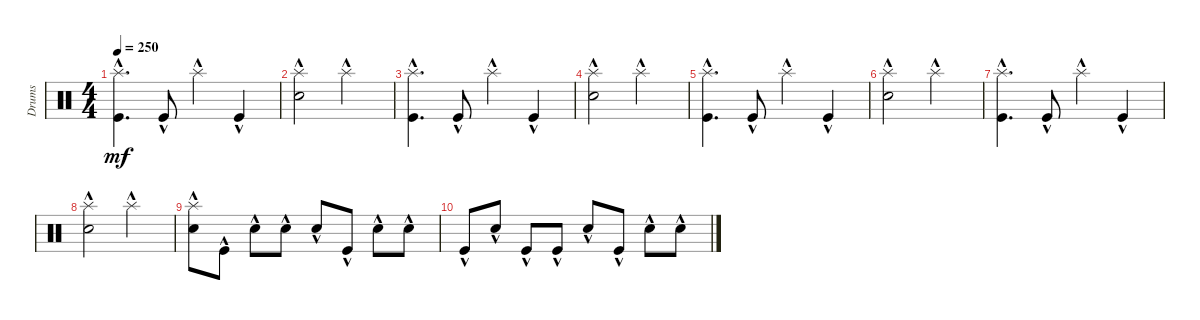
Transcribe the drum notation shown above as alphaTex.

\track ("Drums" "Drums") {instrument percussion}
\staff {score}
\articulation defaults
\ts (4 4)
\tempo 250
\clef neutral
\ks c
("Kick (hit)"{hac} "Splash (hit)"{hac}).4{d dy mf} "Kick (hit)"{hac}.8 "Splash (hit)"{hac}.4 "Kick (hit)"{hac}.4 |
("Snare (hit) 2"{hac} "Splash (hit)"{hac}).2 "Splash (hit)"{hac}.2 |
("Kick (hit)"{hac} "Splash (hit)"{hac}).4{d} "Kick (hit)"{hac}.8 "Splash (hit)"{hac}.4 "Kick (hit)"{hac}.4 |
("Snare (hit) 2"{hac} "Splash (hit)"{hac}).2 "Splash (hit)"{hac}.2 |
("Kick (hit)"{hac} "Splash (hit)"{hac}).4{d} "Kick (hit)"{hac}.8 "Splash (hit)"{hac}.4 "Kick (hit)"{hac}.4 |
("Snare (hit) 2"{hac} "Splash (hit)"{hac}).2 "Splash (hit)"{hac}.2 |
("Kick (hit)"{hac} "Splash (hit)"{hac}).4{d} "Kick (hit)"{hac}.8 "Splash (hit)"{hac}.4 "Kick (hit)"{hac}.4 |
("Snare (hit) 2"{hac} "Splash (hit)"{hac}).2 "Splash (hit)"{hac}.2 |
("Snare (hit) 2"{hac} "Splash (hit)"{hac}).8 "Kick (hit)"{hac}.8 "Snare (hit) 2"{hac}.8 "Snare (hit) 2"{hac}.8 "Snare (hit) 2"{hac}.8 "Kick (hit)"{hac}.8 "Snare (hit) 2"{hac}.8 "Snare (hit) 2"{hac}.8 |
"Kick (hit)"{hac}.8 "Snare (hit) 2"{hac}.8 "Kick (hit)"{hac}.8 "Kick (hit)"{hac}.8 "Snare (hit) 2"{hac}.8 "Kick (hit)"{hac}.8 "Snare (hit) 2"{hac}.8 "Snare (hit) 2"{hac}.8
